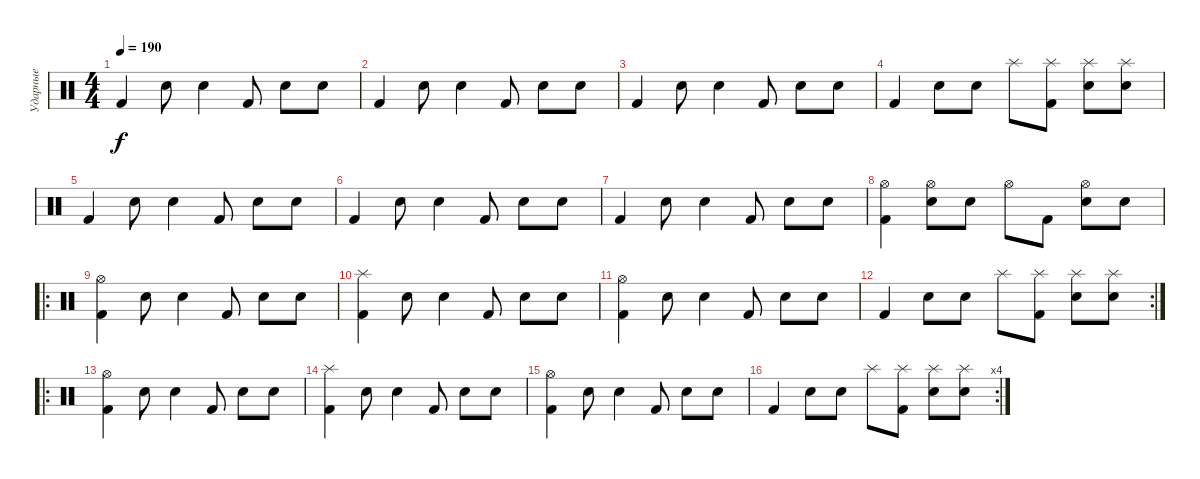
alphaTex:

\track ("Ударные" "Ударные") {instrument percussion}
\staff {score}
\articulation defaults
\ts (4 4)
\tempo 190
\clef neutral
\ks c "Kick (hit) 2".4{dy f} "Electric Snare (hit)".8 "Electric Snare (hit)".4 "Kick (hit) 2".8 "Electric Snare (hit)".8 "Electric Snare (hit)".8
|
"Kick (hit) 2".4 "Electric Snare (hit)".8 "Electric Snare (hit)".4 "Kick (hit) 2".8 "Electric Snare (hit)".8 "Electric Snare (hit)".8 |
"Kick (hit) 2".4 "Electric Snare (hit)".8 "Electric Snare (hit)".4 "Kick (hit) 2".8 "Electric Snare (hit)".8 "Electric Snare (hit)".8 |
"Kick (hit) 2".4 "Electric Snare (hit)".8 "Electric Snare (hit)".8 "Splash (hit)".8 ("Splash (hit)" "Kick (hit) 2").8 ("Splash (hit)" "Electric Snare (hit)").8 ("Splash (hit)" "Electric Snare (hit)").8 |
"Kick (hit) 2".4 "Electric Snare (hit)".8 "Electric Snare (hit)".4 "Kick (hit) 2".8 "Electric Snare (hit)".8 "Electric Snare (hit)".8 |
"Kick (hit) 2".4 "Electric Snare (hit)".8 "Electric Snare (hit)".4 "Kick (hit) 2".8 "Electric Snare (hit)".8 "Electric Snare (hit)".8 |
"Kick (hit) 2".4 "Electric Snare (hit)".8 "Electric Snare (hit)".4 "Kick (hit) 2".8 "Electric Snare (hit)".8 "Electric Snare (hit)".8 |
("Hi-Hat (open)" "Kick (hit) 2").4 ("Hi-Hat (open)" "Electric Snare (hit)").8 "Electric Snare (hit)".8 "Hi-Hat (open)".8 "Kick (hit) 2".8 ("Hi-Hat (open)" "Electric Snare (hit)").8 "Electric Snare (hit)".8 |
\ro
("Hi-Hat (open)" "Kick (hit) 2").4 "Electric Snare (hit)".8 "Electric Snare (hit)".4 "Kick (hit) 2".8 "Electric Snare (hit)".8 "Electric Snare (hit)".8 |
("Splash (hit)" "Kick (hit) 2").4 "Electric Snare (hit)".8 "Electric Snare (hit)".4 "Kick (hit) 2".8 "Electric Snare (hit)".8 "Electric Snare (hit)".8 |
("Hi-Hat (open)" "Kick (hit) 2").4 "Electric Snare (hit)".8 "Electric Snare (hit)".4 "Kick (hit) 2".8 "Electric Snare (hit)".8 "Electric Snare (hit)".8 |
\rc 2 "Kick (hit) 2".4 "Electric Snare (hit)".8 "Electric Snare (hit)".8 "Splash (hit)".8
("Splash (hit)" "Kick (hit) 2").8 ("Splash (hit)" "Electric Snare (hit)").8 ("Splash (hit)" "Electric Snare (hit)").8 |
\ro
("Hi-Hat (open)" "Kick (hit) 2").4 "Electric Snare (hit)".8 "Electric Snare (hit)".4 "Kick (hit) 2".8 "Electric Snare (hit)".8 "Electric Snare (hit)".8 |
("Splash (hit)" "Kick (hit) 2").4 "Electric Snare (hit)".8 "Electric Snare (hit)".4 "Kick (hit) 2".8 "Electric Snare (hit)".8 "Electric Snare (hit)".8 |
("Hi-Hat (open)" "Kick (hit) 2").4 "Electric Snare (hit)".8 "Electric Snare (hit)".4 "Kick (hit) 2".8 "Electric Snare (hit)".8 "Electric Snare (hit)".8 |
\rc 4 "Kick (hit) 2".4 "Electric Snare (hit)".8 "Electric Snare (hit)".8 "Splash (hit)".8
("Splash (hit)" "Kick (hit) 2").8 ("Splash (hit)" "Electric Snare (hit)").8 ("Splash (hit)" "Electric Snare (hit)").8
